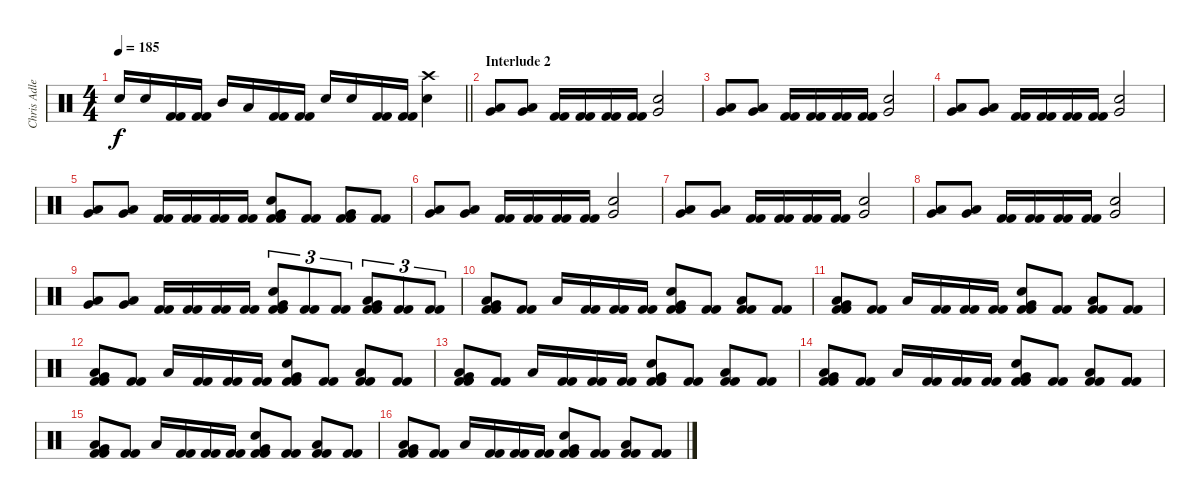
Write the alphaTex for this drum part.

\track ("Chris Adler" "Chris Adle") {instrument percussion}
\staff {score}
\articulation defaults
\ts (4 4)
\tempo 185
\clef neutral
\barLineRight lightlight
\ks c "Electric Snare (hit)".16{dy f} "Electric Snare (hit)".16
("Kick (hit) 2" "Kick (hit) 2").16 ("Kick (hit) 2" "Kick (hit) 2").16 "Mid Tom (hit)".16 "Low Tom (hit)".16 ("Kick (hit) 2" "Kick (hit) 2").16 ("Kick (hit) 2" "Kick (hit) 2").16 "Electric Snare (hit)".16 "Electric Snare (hit)".16 ("Kick (hit) 2" "Kick (hit) 2").16 ("Kick (hit) 2" "Kick (hit) 2").16 ("Crash high (hit)" "Electric Snare (hit)").4 |
\section ("" "Interlude 2")
("Very Low Tom (hit)" "Low Floor Tom (hit)").8 ("Very Low Tom (hit)" "Low Floor Tom (hit)").8 ("Kick (hit) 2" "Kick (hit) 2").16 ("Kick (hit) 2" "Kick (hit) 2").16 ("Kick (hit) 2" "Kick (hit) 2").16 ("Kick (hit) 2" "Kick (hit) 2").16 ("Electric Snare (hit)" "Very Low Tom (hit)").2 |
("Very Low Tom (hit)" "Low Floor Tom (hit)").8 ("Very Low Tom (hit)" "Low Floor Tom (hit)").8 ("Kick (hit) 2" "Kick (hit) 2").16 ("Kick (hit) 2" "Kick (hit) 2").16 ("Kick (hit) 2" "Kick (hit) 2").16 ("Kick (hit) 2" "Kick (hit) 2").16 ("Electric Snare (hit)" "Very Low Tom (hit)").2 |
("Very Low Tom (hit)" "Low Floor Tom (hit)").8 ("Very Low Tom (hit)" "Low Floor Tom (hit)").8 ("Kick (hit) 2" "Kick (hit) 2").16 ("Kick (hit) 2" "Kick (hit) 2").16 ("Kick (hit) 2" "Kick (hit) 2").16 ("Kick (hit) 2" "Kick (hit) 2").16 ("Electric Snare (hit)" "Very Low Tom (hit)").2 |
("Very Low Tom (hit)" "Low Floor Tom (hit)").8 ("Very Low Tom (hit)" "Low Floor Tom (hit)").8 ("Kick (hit) 2" "Kick (hit) 2").16 ("Kick (hit) 2" "Kick (hit) 2").16 ("Kick (hit) 2" "Kick (hit) 2").16 ("Kick (hit) 2" "Kick (hit) 2").16 ("Very Low Tom (hit)" "Electric Snare (hit)" "Kick (hit) 2" "Kick (hit) 2").8 ("Kick (hit) 2" "Kick (hit) 2").8 ("Very Low Tom (hit)" "Kick (hit) 2" "Kick (hit) 2").8 ("Kick (hit) 2" "Kick (hit) 2").8 |
("Very Low Tom (hit)" "Low Floor Tom (hit)").8 ("Very Low Tom (hit)" "Low Floor Tom (hit)").8 ("Kick (hit) 2" "Kick (hit) 2").16 ("Kick (hit) 2" "Kick (hit) 2").16 ("Kick (hit) 2" "Kick (hit) 2").16 ("Kick (hit) 2" "Kick (hit) 2").16 ("Electric Snare (hit)" "Very Low Tom (hit)").2 |
("Very Low Tom (hit)" "Low Floor Tom (hit)").8 ("Very Low Tom (hit)" "Low Floor Tom (hit)").8 ("Kick (hit) 2" "Kick (hit) 2").16 ("Kick (hit) 2" "Kick (hit) 2").16 ("Kick (hit) 2" "Kick (hit) 2").16 ("Kick (hit) 2" "Kick (hit) 2").16 ("Electric Snare (hit)" "Very Low Tom (hit)").2 |
("Very Low Tom (hit)" "Low Floor Tom (hit)").8 ("Very Low Tom (hit)" "Low Floor Tom (hit)").8 ("Kick (hit) 2" "Kick (hit) 2").16 ("Kick (hit) 2" "Kick (hit) 2").16 ("Kick (hit) 2" "Kick (hit) 2").16 ("Kick (hit) 2" "Kick (hit) 2").16 ("Electric Snare (hit)" "Very Low Tom (hit)").2 |
("Very Low Tom (hit)" "Low Floor Tom (hit)").8 ("Very Low Tom (hit)" "Low Floor Tom (hit)").8 ("Kick (hit) 2" "Kick (hit) 2").16 ("Kick (hit) 2" "Kick (hit) 2").16 ("Kick (hit) 2" "Kick (hit) 2").16 ("Kick (hit) 2" "Kick (hit) 2").16 ("Very Low Tom (hit)" "Electric Snare (hit)" "Kick (hit) 2" "Kick (hit) 2").8{tu (3 2)} ("Kick (hit) 2" "Kick (hit) 2").8{tu (3 2)} ("Kick (hit) 2" "Kick (hit) 2").8{tu (3 2)} ("Low Tom (hit)" "Very Low Tom (hit)" "Kick (hit) 2" "Kick (hit) 2").8{tu (3 2)} ("Kick (hit) 2" "Kick (hit) 2").8{tu (3 2)} ("Kick (hit) 2" "Kick (hit) 2").8{tu (3 2)} |
("Very Low Tom (hit)" "Low Floor Tom (hit)" "Kick (hit) 2" "Kick (hit) 2").8 ("Kick (hit) 2" "Kick (hit) 2").8 "Low Floor Tom (hit)".16 ("Kick (hit) 2" "Kick (hit) 2").16 ("Kick (hit) 2" "Kick (hit) 2").16 ("Kick (hit) 2" "Kick (hit) 2").16 ("Very Low Tom (hit)" "Electric Snare (hit)" "Kick (hit) 2" "Kick (hit) 2").8 ("Kick (hit) 2" "Kick (hit) 2").8 ("Low Floor Tom (hit)" "Kick (hit) 2" "Kick (hit) 2").8 ("Kick (hit) 2" "Kick (hit) 2").8 |
("Very Low Tom (hit)" "Low Floor Tom (hit)" "Kick (hit) 2" "Kick (hit) 2").8 ("Kick (hit) 2" "Kick (hit) 2").8 "Low Floor Tom (hit)".16 ("Kick (hit) 2" "Kick (hit) 2").16 ("Kick (hit) 2" "Kick (hit) 2").16 ("Kick (hit) 2" "Kick (hit) 2").16 ("Very Low Tom (hit)" "Electric Snare (hit)" "Kick (hit) 2" "Kick (hit) 2").8 ("Kick (hit) 2" "Kick (hit) 2").8 ("Low Floor Tom (hit)" "Kick (hit) 2" "Kick (hit) 2").8 ("Kick (hit) 2" "Kick (hit) 2").8 |
("Very Low Tom (hit)" "Low Floor Tom (hit)" "Kick (hit) 2" "Kick (hit) 2").8 ("Kick (hit) 2" "Kick (hit) 2").8 "Low Floor Tom (hit)".16 ("Kick (hit) 2" "Kick (hit) 2").16 ("Kick (hit) 2" "Kick (hit) 2").16 ("Kick (hit) 2" "Kick (hit) 2").16 ("Very Low Tom (hit)" "Electric Snare (hit)" "Kick (hit) 2" "Kick (hit) 2").8 ("Kick (hit) 2" "Kick (hit) 2").8 ("Low Floor Tom (hit)" "Kick (hit) 2" "Kick (hit) 2").8 ("Kick (hit) 2" "Kick (hit) 2").8 |
("Very Low Tom (hit)" "Low Floor Tom (hit)" "Kick (hit) 2" "Kick (hit) 2").8 ("Kick (hit) 2" "Kick (hit) 2").8 "Low Floor Tom (hit)".16 ("Kick (hit) 2" "Kick (hit) 2").16 ("Kick (hit) 2" "Kick (hit) 2").16 ("Kick (hit) 2" "Kick (hit) 2").16 ("Very Low Tom (hit)" "Electric Snare (hit)" "Kick (hit) 2" "Kick (hit) 2").8 ("Kick (hit) 2" "Kick (hit) 2").8 ("Low Floor Tom (hit)" "Kick (hit) 2" "Kick (hit) 2").8 ("Kick (hit) 2" "Kick (hit) 2").8 |
("Very Low Tom (hit)" "Low Floor Tom (hit)" "Kick (hit) 2" "Kick (hit) 2").8 ("Kick (hit) 2" "Kick (hit) 2").8 "Low Floor Tom (hit)".16 ("Kick (hit) 2" "Kick (hit) 2").16 ("Kick (hit) 2" "Kick (hit) 2").16 ("Kick (hit) 2" "Kick (hit) 2").16 ("Very Low Tom (hit)" "Electric Snare (hit)" "Kick (hit) 2" "Kick (hit) 2").8 ("Kick (hit) 2" "Kick (hit) 2").8 ("Low Floor Tom (hit)" "Kick (hit) 2" "Kick (hit) 2").8 ("Kick (hit) 2" "Kick (hit) 2").8 |
("Very Low Tom (hit)" "Low Floor Tom (hit)" "Kick (hit) 2" "Kick (hit) 2").8 ("Kick (hit) 2" "Kick (hit) 2").8 "Low Floor Tom (hit)".16 ("Kick (hit) 2" "Kick (hit) 2").16 ("Kick (hit) 2" "Kick (hit) 2").16 ("Kick (hit) 2" "Kick (hit) 2").16 ("Very Low Tom (hit)" "Electric Snare (hit)" "Kick (hit) 2" "Kick (hit) 2").8 ("Kick (hit) 2" "Kick (hit) 2").8 ("Low Floor Tom (hit)" "Kick (hit) 2" "Kick (hit) 2").8 ("Kick (hit) 2" "Kick (hit) 2").8 |
("Very Low Tom (hit)" "Low Floor Tom (hit)" "Kick (hit) 2" "Kick (hit) 2").8 ("Kick (hit) 2" "Kick (hit) 2").8 "Low Floor Tom (hit)".16 ("Kick (hit) 2" "Kick (hit) 2").16 ("Kick (hit) 2" "Kick (hit) 2").16 ("Kick (hit) 2" "Kick (hit) 2").16 ("Very Low Tom (hit)" "Electric Snare (hit)" "Kick (hit) 2" "Kick (hit) 2").8 ("Kick (hit) 2" "Kick (hit) 2").8 ("Low Floor Tom (hit)" "Kick (hit) 2" "Kick (hit) 2").8 ("Kick (hit) 2" "Kick (hit) 2").8
